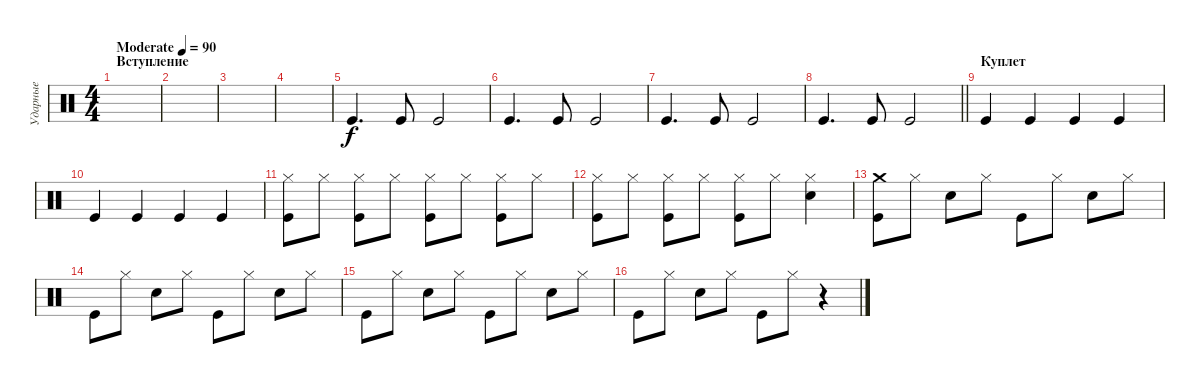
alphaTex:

\track ("Ударные" "Ударные") {instrument percussion}
\staff {score}
\articulation defaults
\ts (4 4)
\section ("" "Вступление")
\tempo (90 "Moderate")
\clef neutral
\ks c
|
|
|
|
"Kick (hit)".4{d} "Kick (hit)".8 "Kick (hit)".2 |
"Kick (hit)".4{d} "Kick (hit)".8 "Kick (hit)".2 |
"Kick (hit)".4{d} "Kick (hit)".8 "Kick (hit)".2 |
\barLineRight lightlight "Kick (hit)".4{d} "Kick (hit)".8 "Kick (hit)".2
|
\section ("" "Куплет")
"Kick (hit)".4 "Kick (hit)".4 "Kick (hit)".4 "Kick (hit)".4 |
"Kick (hit)".4 "Kick (hit)".4 "Kick (hit)".4 "Kick (hit)".4 |
("Hi-Hat (closed)" "Kick (hit)").8 "Hi-Hat (closed)".8 ("Hi-Hat (closed)" "Kick (hit)").8 "Hi-Hat (closed)".8 ("Hi-Hat (closed)" "Kick (hit)").8 "Hi-Hat (closed)".8 ("Hi-Hat (closed)" "Kick (hit)").8 "Hi-Hat (closed)".8 |
("Hi-Hat (closed)" "Kick (hit)").8 "Hi-Hat (closed)".8 ("Hi-Hat (closed)" "Kick (hit)").8 "Hi-Hat (closed)".8 ("Hi-Hat (closed)" "Kick (hit)").8 "Hi-Hat (closed)".8 ("Hi-Hat (closed)" "Electric Snare (hit)").4 |
("Crash medium (hit)" "Kick (hit)").8 "Hi-Hat (closed)".8 "Electric Snare (hit)".8 "Hi-Hat (closed)".8 "Kick (hit)".8 "Hi-Hat (closed)".8 "Electric Snare (hit)".8 "Hi-Hat (closed)".8 |
"Kick (hit)".8 "Hi-Hat (closed)".8 "Electric Snare (hit)".8 "Hi-Hat (closed)".8 "Kick (hit)".8 "Hi-Hat (closed)".8 "Electric Snare (hit)".8 "Hi-Hat (closed)".8 |
"Kick (hit)".8 "Hi-Hat (closed)".8 "Electric Snare (hit)".8 "Hi-Hat (closed)".8 "Kick (hit)".8 "Hi-Hat (closed)".8 "Electric Snare (hit)".8 "Hi-Hat (closed)".8 |
"Kick (hit)".8 "Hi-Hat (closed)".8 "Electric Snare (hit)".8 "Hi-Hat (closed)".8 "Kick (hit)".8 "Hi-Hat (closed)".8 r.4
